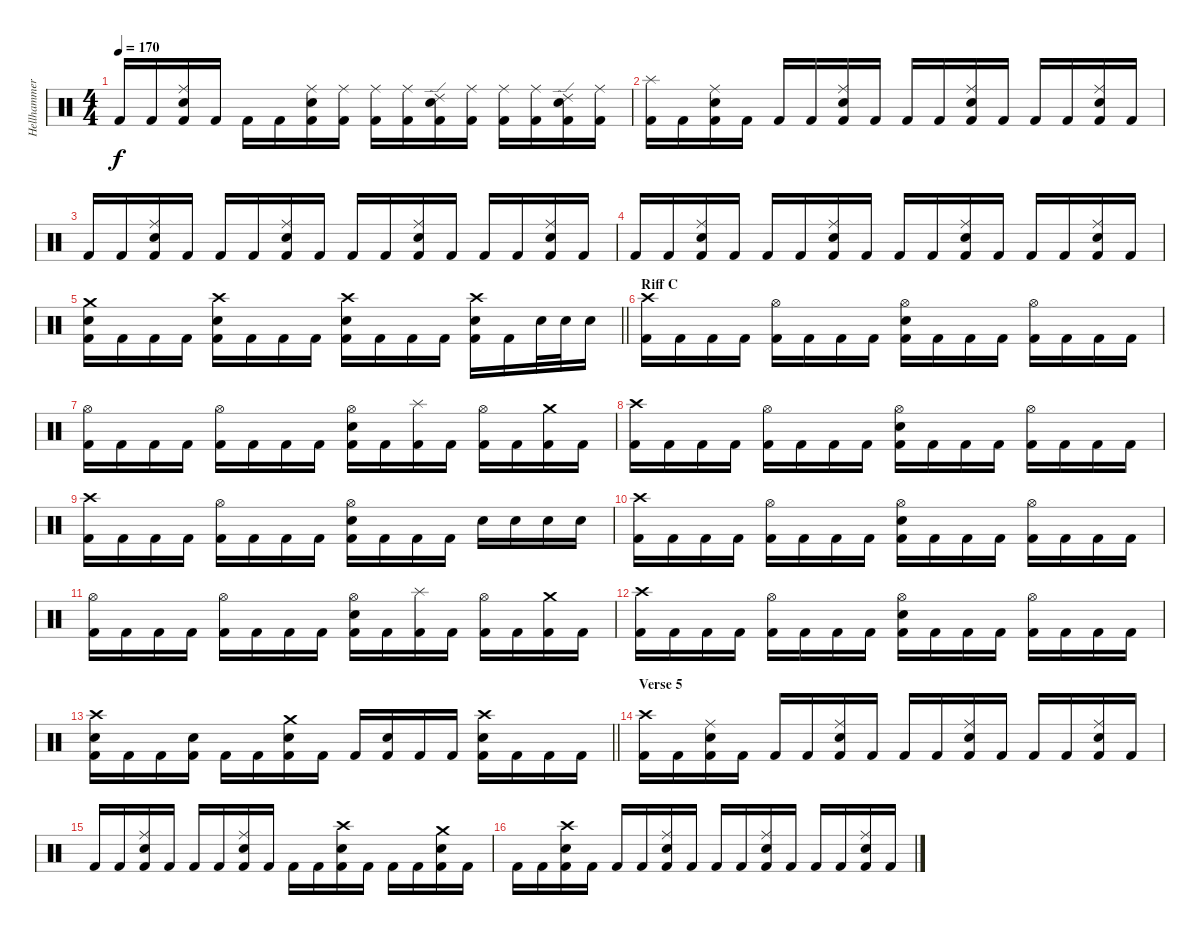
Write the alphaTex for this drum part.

\track ("Hellhammer" "Hellhammer") {instrument percussion}
\staff {score}
\articulation defaults
\ts (4 4)
\tempo 170
\clef neutral
\ks c "Kick (hit) 2".16{dy f} "Kick (hit) 2".16
("Ride (middle)" "Snare (hit) 2" "Kick (hit) 2").16 "Kick (hit) 2".16 "Kick (hit) 2".16 "Kick (hit) 2".16 ("Ride (middle)" "Snare (hit) 2" "Kick (hit) 2").16 ("Ride (middle)" "Kick (hit) 2").16 ("Ride (middle)" "Kick (hit) 2").16 ("Ride (middle)" "Kick (hit) 2").16 ("Ride (edge) 2" "Snare (hit) 2" "Kick (hit) 2").16 ("Ride (middle)" "Kick (hit) 2").16 ("Ride (middle)" "Kick (hit) 2").16 ("Ride (middle)" "Kick (hit) 2").16 ("Ride (edge) 2" "Snare (hit) 2" "Kick (hit) 2").16 ("Ride (middle)" "Kick (hit) 2").16 |
("Splash (hit)" "Kick (hit) 2").16 "Kick (hit) 2".16 ("Ride (middle)" "Snare (hit) 2" "Kick (hit) 2").16 "Kick (hit) 2".16 "Kick (hit) 2".16 "Kick (hit) 2".16 ("Ride (middle)" "Snare (hit) 2" "Kick (hit) 2").16 "Kick (hit) 2".16 "Kick (hit) 2".16 "Kick (hit) 2".16 ("Ride (middle)" "Snare (hit) 2" "Kick (hit) 2").16 "Kick (hit) 2".16 "Kick (hit) 2".16 "Kick (hit) 2".16 ("Ride (middle)" "Snare (hit) 2" "Kick (hit) 2").16 "Kick (hit) 2".16 |
"Kick (hit) 2".16 "Kick (hit) 2".16 ("Ride (middle)" "Snare (hit) 2" "Kick (hit) 2").16 "Kick (hit) 2".16 "Kick (hit) 2".16 "Kick (hit) 2".16 ("Ride (middle)" "Snare (hit) 2" "Kick (hit) 2").16 "Kick (hit) 2".16 "Kick (hit) 2".16 "Kick (hit) 2".16 ("Ride (middle)" "Snare (hit) 2" "Kick (hit) 2").16 "Kick (hit) 2".16 "Kick (hit) 2".16 "Kick (hit) 2".16 ("Ride (middle)" "Snare (hit) 2" "Kick (hit) 2").16 "Kick (hit) 2".16 |
"Kick (hit) 2".16 "Kick (hit) 2".16 ("Ride (middle)" "Snare (hit) 2" "Kick (hit) 2").16 "Kick (hit) 2".16 "Kick (hit) 2".16 "Kick (hit) 2".16 ("Ride (middle)" "Snare (hit) 2" "Kick (hit) 2").16 "Kick (hit) 2".16 "Kick (hit) 2".16 "Kick (hit) 2".16 ("Ride (middle)" "Snare (hit) 2" "Kick (hit) 2").16 "Kick (hit) 2".16 "Kick (hit) 2".16 "Kick (hit) 2".16 ("Ride (middle)" "Snare (hit) 2" "Kick (hit) 2").16 "Kick (hit) 2".16 |
\barLineRight lightlight
("Crash medium (hit)" "Snare (hit) 2" "Kick (hit) 2").16 "Kick (hit) 2".16 "Kick (hit) 2".16 "Kick (hit) 2".16 ("Crash high (hit)" "Snare (hit) 2" "Kick (hit) 2").16 "Kick (hit) 2".16 "Kick (hit) 2".16 "Kick (hit) 2".16 ("Crash high (hit)" "Snare (hit) 2" "Kick (hit) 2").16 "Kick (hit) 2".16 "Kick (hit) 2".16 "Kick (hit) 2".16 ("Crash high (hit)" "Snare (hit) 2" "Kick (hit) 2").16 "Kick (hit) 2".16 "Snare (hit) 2".32 "Snare (hit) 2".32 "Snare (hit) 2".16 |
\section ("" "Riff C")
("Crash high (hit)" "Kick (hit) 2").16 "Kick (hit) 2".16 "Kick (hit) 2".16 "Kick (hit) 2".16 ("Hi-Hat (open)" "Kick (hit) 2").16 "Kick (hit) 2".16 "Kick (hit) 2".16 "Kick (hit) 2".16 ("Hi-Hat (open)" "Snare (hit) 2" "Kick (hit) 2").16 "Kick (hit) 2".16 "Kick (hit) 2".16 "Kick (hit) 2".16 ("Hi-Hat (open)" "Kick (hit) 2").16 "Kick (hit) 2".16 "Kick (hit) 2".16 "Kick (hit) 2".16 |
("Hi-Hat (open)" "Kick (hit) 2").16 "Kick (hit) 2".16 "Kick (hit) 2".16 "Kick (hit) 2".16 ("Hi-Hat (open)" "Kick (hit) 2").16 "Kick (hit) 2".16 "Kick (hit) 2".16 "Kick (hit) 2".16 ("Hi-Hat (open)" "Snare (hit) 2" "Kick (hit) 2").16 "Kick (hit) 2".16 ("Splash (hit)" "Kick (hit) 2").16 "Kick (hit) 2".16 ("Hi-Hat (open)" "Kick (hit) 2").16 "Kick (hit) 2".16 ("Crash medium (hit)" "Kick (hit) 2").16 "Kick (hit) 2".16 |
("Crash high (hit)" "Kick (hit) 2").16 "Kick (hit) 2".16 "Kick (hit) 2".16 "Kick (hit) 2".16 ("Hi-Hat (open)" "Kick (hit) 2").16 "Kick (hit) 2".16 "Kick (hit) 2".16 "Kick (hit) 2".16 ("Hi-Hat (open)" "Snare (hit) 2" "Kick (hit) 2").16 "Kick (hit) 2".16 "Kick (hit) 2".16 "Kick (hit) 2".16 ("Hi-Hat (open)" "Kick (hit) 2").16 "Kick (hit) 2".16 "Kick (hit) 2".16 "Kick (hit) 2".16 |
("Crash high (hit)" "Kick (hit) 2").16 "Kick (hit) 2".16 "Kick (hit) 2".16 "Kick (hit) 2".16 ("Hi-Hat (open)" "Kick (hit) 2").16 "Kick (hit) 2".16 "Kick (hit) 2".16 "Kick (hit) 2".16 ("Hi-Hat (open)" "Snare (hit) 2" "Kick (hit) 2").16 "Kick (hit) 2".16 "Kick (hit) 2".16 "Kick (hit) 2".16 "Snare (hit) 2".16 "Snare (hit) 2".16 "Snare (hit) 2".16 "Snare (hit) 2".16 |
("Crash high (hit)" "Kick (hit) 2").16 "Kick (hit) 2".16 "Kick (hit) 2".16 "Kick (hit) 2".16 ("Hi-Hat (open)" "Kick (hit) 2").16 "Kick (hit) 2".16 "Kick (hit) 2".16 "Kick (hit) 2".16 ("Hi-Hat (open)" "Snare (hit) 2" "Kick (hit) 2").16 "Kick (hit) 2".16 "Kick (hit) 2".16 "Kick (hit) 2".16 ("Hi-Hat (open)" "Kick (hit) 2").16 "Kick (hit) 2".16 "Kick (hit) 2".16 "Kick (hit) 2".16 |
("Hi-Hat (open)" "Kick (hit) 2").16 "Kick (hit) 2".16 "Kick (hit) 2".16 "Kick (hit) 2".16 ("Hi-Hat (open)" "Kick (hit) 2").16 "Kick (hit) 2".16 "Kick (hit) 2".16 "Kick (hit) 2".16 ("Hi-Hat (open)" "Snare (hit) 2" "Kick (hit) 2").16 "Kick (hit) 2".16 ("Splash (hit)" "Kick (hit) 2").16 "Kick (hit) 2".16 ("Hi-Hat (open)" "Kick (hit) 2").16 "Kick (hit) 2".16 ("Crash medium (hit)" "Kick (hit) 2").16 "Kick (hit) 2".16 |
("Crash high (hit)" "Kick (hit) 2").16 "Kick (hit) 2".16 "Kick (hit) 2".16 "Kick (hit) 2".16 ("Hi-Hat (open)" "Kick (hit) 2").16 "Kick (hit) 2".16 "Kick (hit) 2".16 "Kick (hit) 2".16 ("Hi-Hat (open)" "Snare (hit) 2" "Kick (hit) 2").16 "Kick (hit) 2".16 "Kick (hit) 2".16 "Kick (hit) 2".16 ("Hi-Hat (open)" "Kick (hit) 2").16 "Kick (hit) 2".16 "Kick (hit) 2".16 "Kick (hit) 2".16 |
\barLineRight lightlight
("Crash high (hit)" "Snare (hit) 2" "Kick (hit) 2").16 "Kick (hit) 2".16 "Kick (hit) 2".16 ("Snare (hit) 2" "Kick (hit) 2").16 "Kick (hit) 2".16 "Kick (hit) 2".16 ("Crash medium (hit)" "Snare (hit) 2" "Kick (hit) 2").16 "Kick (hit) 2".16 "Kick (hit) 2".16 ("Snare (hit) 2" "Kick (hit) 2").16 "Kick (hit) 2".16 "Kick (hit) 2".16 ("Crash high (hit)" "Snare (hit) 2" "Kick (hit) 2").16 "Kick (hit) 2".16 "Kick (hit) 2".16 "Kick (hit) 2".16 |
\section ("" "Verse 5")
("Crash high (hit)" "Kick (hit) 2").16 "Kick (hit) 2".16 ("Ride (middle)" "Snare (hit) 2" "Kick (hit) 2").16 "Kick (hit) 2".16 "Kick (hit) 2".16 "Kick (hit) 2".16 ("Ride (middle)" "Snare (hit) 2" "Kick (hit) 2").16 "Kick (hit) 2".16 "Kick (hit) 2".16 "Kick (hit) 2".16 ("Ride (middle)" "Snare (hit) 2" "Kick (hit) 2").16 "Kick (hit) 2".16 "Kick (hit) 2".16 "Kick (hit) 2".16 ("Ride (middle)" "Snare (hit) 2" "Kick (hit) 2").16 "Kick (hit) 2".16 |
"Kick (hit) 2".16 "Kick (hit) 2".16 ("Ride (middle)" "Snare (hit) 2" "Kick (hit) 2").16 "Kick (hit) 2".16 "Kick (hit) 2".16 "Kick (hit) 2".16 ("Ride (middle)" "Snare (hit) 2" "Kick (hit) 2").16 "Kick (hit) 2".16 "Kick (hit) 2".16 "Kick (hit) 2".16 ("Crash high (hit)" "Snare (hit) 2" "Kick (hit) 2").16 "Kick (hit) 2".16 "Kick (hit) 2".16 "Kick (hit) 2".16 ("Crash medium (hit)" "Snare (hit) 2" "Kick (hit) 2").16 "Kick (hit) 2".16 |
"Kick (hit) 2".16 "Kick (hit) 2".16 ("Crash high (hit)" "Snare (hit) 2" "Kick (hit) 2").16 "Kick (hit) 2".16 "Kick (hit) 2".16 "Kick (hit) 2".16 ("Ride (middle)" "Snare (hit) 2" "Kick (hit) 2").16 "Kick (hit) 2".16 "Kick (hit) 2".16 "Kick (hit) 2".16 ("Ride (middle)" "Snare (hit) 2" "Kick (hit) 2").16 "Kick (hit) 2".16 "Kick (hit) 2".16 "Kick (hit) 2".16 ("Ride (middle)" "Snare (hit) 2" "Kick (hit) 2").16 "Kick (hit) 2".16
